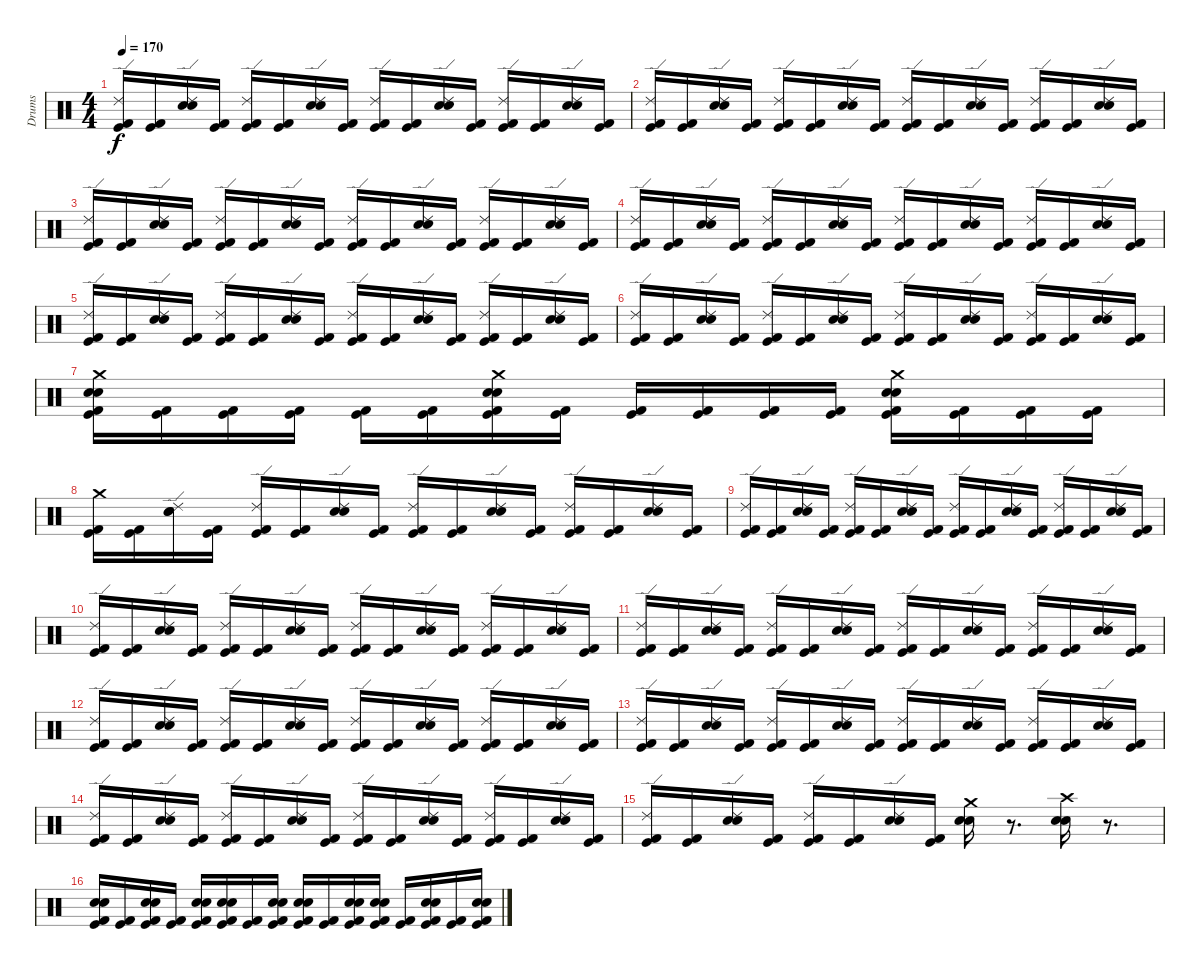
\track ("Drums" "Drums") {instrument percussion}
\staff {score}
\articulation defaults
\ts (4 4)
\tempo 170
\clef neutral
\ks c
("Ride (edge) 2" "Kick (hit) 2" "Kick (hit)").16{dy f} ("Kick (hit) 2" "Kick (hit)").16 ("Electric Snare (hit)" "Snare (hit) 2" "Ride (edge) 2").16 ("Kick (hit) 2" "Kick (hit)").16 ("Ride (edge) 2" "Kick (hit) 2" "Kick (hit)").16 ("Kick (hit) 2" "Kick (hit)").16 ("Electric Snare (hit)" "Snare (hit) 2" "Ride (edge) 2").16 ("Kick (hit) 2" "Kick (hit)").16 ("Ride (edge) 2" "Kick (hit) 2" "Kick (hit)").16 ("Kick (hit) 2" "Kick (hit)").16 ("Electric Snare (hit)" "Snare (hit) 2" "Ride (edge) 2").16 ("Kick (hit) 2" "Kick (hit)").16 ("Ride (edge) 2" "Kick (hit) 2" "Kick (hit)").16 ("Kick (hit) 2" "Kick (hit)").16 ("Electric Snare (hit)" "Snare (hit) 2" "Ride (edge) 2").16 ("Kick (hit) 2" "Kick (hit)").16 |
("Ride (edge) 2" "Kick (hit) 2" "Kick (hit)").16 ("Kick (hit) 2" "Kick (hit)").16 ("Electric Snare (hit)" "Snare (hit) 2" "Ride (edge) 2").16 ("Kick (hit) 2" "Kick (hit)").16 ("Ride (edge) 2" "Kick (hit) 2" "Kick (hit)").16 ("Kick (hit) 2" "Kick (hit)").16 ("Electric Snare (hit)" "Snare (hit) 2" "Ride (edge) 2").16 ("Kick (hit) 2" "Kick (hit)").16 ("Ride (edge) 2" "Kick (hit) 2" "Kick (hit)").16 ("Kick (hit) 2" "Kick (hit)").16 ("Electric Snare (hit)" "Snare (hit) 2" "Ride (edge) 2").16 ("Kick (hit) 2" "Kick (hit)").16 ("Ride (edge) 2" "Kick (hit) 2" "Kick (hit)").16 ("Kick (hit) 2" "Kick (hit)").16 ("Electric Snare (hit)" "Snare (hit) 2" "Ride (edge) 2").16 ("Kick (hit) 2" "Kick (hit)").16 |
("Ride (edge) 2" "Kick (hit) 2" "Kick (hit)").16 ("Kick (hit) 2" "Kick (hit)").16 ("Electric Snare (hit)" "Snare (hit) 2" "Ride (edge) 2").16 ("Kick (hit) 2" "Kick (hit)").16 ("Ride (edge) 2" "Kick (hit) 2" "Kick (hit)").16 ("Kick (hit) 2" "Kick (hit)").16 ("Electric Snare (hit)" "Snare (hit) 2" "Ride (edge) 2").16 ("Kick (hit) 2" "Kick (hit)").16 ("Ride (edge) 2" "Kick (hit) 2" "Kick (hit)").16 ("Kick (hit) 2" "Kick (hit)").16 ("Electric Snare (hit)" "Snare (hit) 2" "Ride (edge) 2").16 ("Kick (hit) 2" "Kick (hit)").16 ("Ride (edge) 2" "Kick (hit) 2" "Kick (hit)").16 ("Kick (hit) 2" "Kick (hit)").16 ("Electric Snare (hit)" "Snare (hit) 2" "Ride (edge) 2").16 ("Kick (hit) 2" "Kick (hit)").16 |
("Ride (edge) 2" "Kick (hit) 2" "Kick (hit)").16 ("Kick (hit) 2" "Kick (hit)").16 ("Electric Snare (hit)" "Snare (hit) 2" "Ride (edge) 2").16 ("Kick (hit) 2" "Kick (hit)").16 ("Ride (edge) 2" "Kick (hit) 2" "Kick (hit)").16 ("Kick (hit) 2" "Kick (hit)").16 ("Electric Snare (hit)" "Snare (hit) 2" "Ride (edge) 2").16 ("Kick (hit) 2" "Kick (hit)").16 ("Ride (edge) 2" "Kick (hit) 2" "Kick (hit)").16 ("Kick (hit) 2" "Kick (hit)").16 ("Electric Snare (hit)" "Snare (hit) 2" "Ride (edge) 2").16 ("Kick (hit) 2" "Kick (hit)").16 ("Ride (edge) 2" "Kick (hit) 2" "Kick (hit)").16 ("Kick (hit) 2" "Kick (hit)").16 ("Electric Snare (hit)" "Snare (hit) 2" "Ride (edge) 2").16 ("Kick (hit) 2" "Kick (hit)").16 |
("Ride (edge) 2" "Kick (hit) 2" "Kick (hit)").16 ("Kick (hit) 2" "Kick (hit)").16 ("Electric Snare (hit)" "Snare (hit) 2" "Ride (edge) 2").16 ("Kick (hit) 2" "Kick (hit)").16 ("Ride (edge) 2" "Kick (hit) 2" "Kick (hit)").16 ("Kick (hit) 2" "Kick (hit)").16 ("Electric Snare (hit)" "Snare (hit) 2" "Ride (edge) 2").16 ("Kick (hit) 2" "Kick (hit)").16 ("Ride (edge) 2" "Kick (hit) 2" "Kick (hit)").16 ("Kick (hit) 2" "Kick (hit)").16 ("Electric Snare (hit)" "Snare (hit) 2" "Ride (edge) 2").16 ("Kick (hit) 2" "Kick (hit)").16 ("Ride (edge) 2" "Kick (hit) 2" "Kick (hit)").16 ("Kick (hit) 2" "Kick (hit)").16 ("Electric Snare (hit)" "Snare (hit) 2" "Ride (edge) 2").16 ("Kick (hit) 2" "Kick (hit)").16 |
("Ride (edge) 2" "Kick (hit) 2" "Kick (hit)").16 ("Kick (hit) 2" "Kick (hit)").16 ("Electric Snare (hit)" "Snare (hit) 2" "Ride (edge) 2").16 ("Kick (hit) 2" "Kick (hit)").16 ("Ride (edge) 2" "Kick (hit) 2" "Kick (hit)").16 ("Kick (hit) 2" "Kick (hit)").16 ("Electric Snare (hit)" "Snare (hit) 2" "Ride (edge) 2").16 ("Kick (hit) 2" "Kick (hit)").16 ("Ride (edge) 2" "Kick (hit) 2" "Kick (hit)").16 ("Kick (hit) 2" "Kick (hit)").16 ("Electric Snare (hit)" "Snare (hit) 2" "Ride (edge) 2").16 ("Kick (hit) 2" "Kick (hit)").16 ("Ride (edge) 2" "Kick (hit) 2" "Kick (hit)").16 ("Kick (hit) 2" "Kick (hit)").16 ("Electric Snare (hit)" "Snare (hit) 2" "Ride (edge) 2").16 ("Kick (hit) 2" "Kick (hit)").16 |
("Crash medium (hit)" "Kick (hit) 2" "Kick (hit)" "Electric Snare (hit)" "Snare (hit) 2").16 ("Kick (hit) 2" "Kick (hit)").16 ("Kick (hit) 2" "Kick (hit)").16 ("Kick (hit) 2" "Kick (hit)").16 ("Kick (hit) 2" "Kick (hit)").16 ("Kick (hit) 2" "Kick (hit)").16 ("Crash medium (hit)" "Snare (hit) 2" "Kick (hit)" "Kick (hit) 2" "Electric Snare (hit)").16 ("Kick (hit) 2" "Kick (hit)").16 ("Kick (hit) 2" "Kick (hit)").16 ("Kick (hit) 2" "Kick (hit)").16 ("Kick (hit)" "Kick (hit) 2").16 ("Kick (hit) 2" "Kick (hit)").16 ("Snare (hit) 2" "Electric Snare (hit)" "Crash medium (hit)" "Kick (hit) 2" "Kick (hit)").16 ("Kick (hit) 2" "Kick (hit)").16 ("Kick (hit) 2" "Kick (hit)").16 ("Kick (hit) 2" "Kick (hit)").16 |
("Crash medium (hit)" "Kick (hit) 2" "Kick (hit)").16 ("Kick (hit) 2" "Kick (hit)").16 ("Electric Snare (hit)" "Snare (hit) 2" "Ride (edge) 2").16 ("Kick (hit) 2" "Kick (hit)").16 ("Ride (edge) 2" "Kick (hit) 2" "Kick (hit)").16 ("Kick (hit) 2" "Kick (hit)").16 ("Electric Snare (hit)" "Snare (hit) 2" "Ride (edge) 2").16 ("Kick (hit) 2" "Kick (hit)").16 ("Ride (edge) 2" "Kick (hit) 2" "Kick (hit)").16 ("Kick (hit) 2" "Kick (hit)").16 ("Electric Snare (hit)" "Snare (hit) 2" "Ride (edge) 2").16 ("Kick (hit) 2" "Kick (hit)").16 ("Ride (edge) 2" "Kick (hit) 2" "Kick (hit)").16 ("Kick (hit) 2" "Kick (hit)").16 ("Electric Snare (hit)" "Snare (hit) 2" "Ride (edge) 2").16 ("Kick (hit) 2" "Kick (hit)").16 |
("Ride (edge) 2" "Kick (hit) 2" "Kick (hit)").16 ("Kick (hit) 2" "Kick (hit)").16 ("Electric Snare (hit)" "Snare (hit) 2" "Ride (edge) 2").16 ("Kick (hit) 2" "Kick (hit)").16 ("Ride (edge) 2" "Kick (hit) 2" "Kick (hit)").16 ("Kick (hit) 2" "Kick (hit)").16 ("Electric Snare (hit)" "Snare (hit) 2" "Ride (edge) 2").16 ("Kick (hit) 2" "Kick (hit)").16 ("Ride (edge) 2" "Kick (hit) 2" "Kick (hit)").16 ("Kick (hit) 2" "Kick (hit)").16 ("Electric Snare (hit)" "Snare (hit) 2" "Ride (edge) 2").16 ("Kick (hit) 2" "Kick (hit)").16 ("Ride (edge) 2" "Kick (hit) 2" "Kick (hit)").16 ("Kick (hit) 2" "Kick (hit)").16 ("Electric Snare (hit)" "Snare (hit) 2" "Ride (edge) 2").16 ("Kick (hit) 2" "Kick (hit)").16 |
("Ride (edge) 2" "Kick (hit) 2" "Kick (hit)").16 ("Kick (hit) 2" "Kick (hit)").16 ("Electric Snare (hit)" "Snare (hit) 2" "Ride (edge) 2").16 ("Kick (hit) 2" "Kick (hit)").16 ("Ride (edge) 2" "Kick (hit) 2" "Kick (hit)").16 ("Kick (hit) 2" "Kick (hit)").16 ("Electric Snare (hit)" "Snare (hit) 2" "Ride (edge) 2").16 ("Kick (hit) 2" "Kick (hit)").16 ("Ride (edge) 2" "Kick (hit) 2" "Kick (hit)").16 ("Kick (hit) 2" "Kick (hit)").16 ("Electric Snare (hit)" "Snare (hit) 2" "Ride (edge) 2").16 ("Kick (hit) 2" "Kick (hit)").16 ("Ride (edge) 2" "Kick (hit) 2" "Kick (hit)").16 ("Kick (hit) 2" "Kick (hit)").16 ("Electric Snare (hit)" "Snare (hit) 2" "Ride (edge) 2").16 ("Kick (hit) 2" "Kick (hit)").16 |
("Ride (edge) 2" "Kick (hit) 2" "Kick (hit)").16 ("Kick (hit) 2" "Kick (hit)").16 ("Electric Snare (hit)" "Snare (hit) 2" "Ride (edge) 2").16 ("Kick (hit) 2" "Kick (hit)").16 ("Ride (edge) 2" "Kick (hit) 2" "Kick (hit)").16 ("Kick (hit) 2" "Kick (hit)").16 ("Electric Snare (hit)" "Snare (hit) 2" "Ride (edge) 2").16 ("Kick (hit) 2" "Kick (hit)").16 ("Ride (edge) 2" "Kick (hit) 2" "Kick (hit)").16 ("Kick (hit) 2" "Kick (hit)").16 ("Electric Snare (hit)" "Snare (hit) 2" "Ride (edge) 2").16 ("Kick (hit) 2" "Kick (hit)").16 ("Ride (edge) 2" "Kick (hit) 2" "Kick (hit)").16 ("Kick (hit) 2" "Kick (hit)").16 ("Electric Snare (hit)" "Snare (hit) 2" "Ride (edge) 2").16 ("Kick (hit) 2" "Kick (hit)").16 |
("Ride (edge) 2" "Kick (hit) 2" "Kick (hit)").16 ("Kick (hit) 2" "Kick (hit)").16 ("Electric Snare (hit)" "Snare (hit) 2" "Ride (edge) 2").16 ("Kick (hit) 2" "Kick (hit)").16 ("Ride (edge) 2" "Kick (hit) 2" "Kick (hit)").16 ("Kick (hit) 2" "Kick (hit)").16 ("Electric Snare (hit)" "Snare (hit) 2" "Ride (edge) 2").16 ("Kick (hit) 2" "Kick (hit)").16 ("Ride (edge) 2" "Kick (hit) 2" "Kick (hit)").16 ("Kick (hit) 2" "Kick (hit)").16 ("Electric Snare (hit)" "Snare (hit) 2" "Ride (edge) 2").16 ("Kick (hit) 2" "Kick (hit)").16 ("Ride (edge) 2" "Kick (hit) 2" "Kick (hit)").16 ("Kick (hit) 2" "Kick (hit)").16 ("Electric Snare (hit)" "Snare (hit) 2" "Ride (edge) 2").16 ("Kick (hit) 2" "Kick (hit)").16 |
("Ride (edge) 2" "Kick (hit) 2" "Kick (hit)").16 ("Kick (hit) 2" "Kick (hit)").16 ("Electric Snare (hit)" "Snare (hit) 2" "Ride (edge) 2").16 ("Kick (hit) 2" "Kick (hit)").16 ("Ride (edge) 2" "Kick (hit) 2" "Kick (hit)").16 ("Kick (hit) 2" "Kick (hit)").16 ("Electric Snare (hit)" "Snare (hit) 2" "Ride (edge) 2").16 ("Kick (hit) 2" "Kick (hit)").16 ("Ride (edge) 2" "Kick (hit) 2" "Kick (hit)").16 ("Kick (hit) 2" "Kick (hit)").16 ("Electric Snare (hit)" "Snare (hit) 2" "Ride (edge) 2").16 ("Kick (hit) 2" "Kick (hit)").16 ("Ride (edge) 2" "Kick (hit) 2" "Kick (hit)").16 ("Kick (hit) 2" "Kick (hit)").16 ("Electric Snare (hit)" "Snare (hit) 2" "Ride (edge) 2").16 ("Kick (hit) 2" "Kick (hit)").16 |
("Ride (edge) 2" "Kick (hit) 2" "Kick (hit)").16 ("Kick (hit) 2" "Kick (hit)").16 ("Electric Snare (hit)" "Snare (hit) 2" "Ride (edge) 2").16 ("Kick (hit) 2" "Kick (hit)").16 ("Ride (edge) 2" "Kick (hit) 2" "Kick (hit)").16 ("Kick (hit) 2" "Kick (hit)").16 ("Electric Snare (hit)" "Snare (hit) 2" "Ride (edge) 2").16 ("Kick (hit) 2" "Kick (hit)").16 ("Ride (edge) 2" "Kick (hit) 2" "Kick (hit)").16 ("Kick (hit) 2" "Kick (hit)").16 ("Electric Snare (hit)" "Snare (hit) 2" "Ride (edge) 2").16 ("Kick (hit) 2" "Kick (hit)").16 ("Ride (edge) 2" "Kick (hit) 2" "Kick (hit)").16 ("Kick (hit) 2" "Kick (hit)").16 ("Electric Snare (hit)" "Snare (hit) 2" "Ride (edge) 2").16 ("Kick (hit) 2" "Kick (hit)").16 |
("Ride (edge) 2" "Kick (hit) 2" "Kick (hit)").16 ("Kick (hit) 2" "Kick (hit)").16 ("Electric Snare (hit)" "Snare (hit) 2" "Ride (edge) 2").16 ("Kick (hit) 2" "Kick (hit)").16 ("Ride (edge) 2" "Kick (hit) 2" "Kick (hit)").16 ("Kick (hit) 2" "Kick (hit)").16 ("Electric Snare (hit)" "Snare (hit) 2" "Ride (edge) 2").16 ("Kick (hit) 2" "Kick (hit)").16 ("Crash medium (hit)" "Electric Snare (hit)" "Snare (hit) 2").16 r.8{d} ("Crash high (hit)" "Electric Snare (hit)" "Snare (hit) 2").16 r.8{d} |
("Electric Snare (hit)" "Snare (hit) 2" "Kick (hit) 2" "Kick (hit)").16 ("Kick (hit) 2" "Kick (hit)").16 ("Electric Snare (hit)" "Snare (hit) 2" "Kick (hit) 2" "Kick (hit)").16 ("Kick (hit) 2" "Kick (hit)").16 ("Electric Snare (hit)" "Snare (hit) 2" "Kick (hit) 2" "Kick (hit)").16 ("Snare (hit) 2" "Electric Snare (hit)" "Kick (hit) 2" "Kick (hit)").16 ("Kick (hit) 2" "Kick (hit)").16 ("Electric Snare (hit)" "Snare (hit) 2" "Kick (hit) 2" "Kick (hit)").16 ("Electric Snare (hit)" "Snare (hit) 2" "Kick (hit) 2" "Kick (hit)").16 ("Kick (hit) 2" "Kick (hit)").16 ("Electric Snare (hit)" "Snare (hit) 2" "Kick (hit) 2" "Kick (hit)").16 ("Electric Snare (hit)" "Snare (hit) 2" "Kick (hit) 2" "Kick (hit)").16 ("Kick (hit) 2" "Kick (hit)").16 ("Electric Snare (hit)" "Snare (hit) 2" "Kick (hit) 2" "Kick (hit)").16 ("Kick (hit) 2" "Kick (hit)").16 ("Electric Snare (hit)" "Snare (hit) 2" "Kick (hit) 2" "Kick (hit)").16
